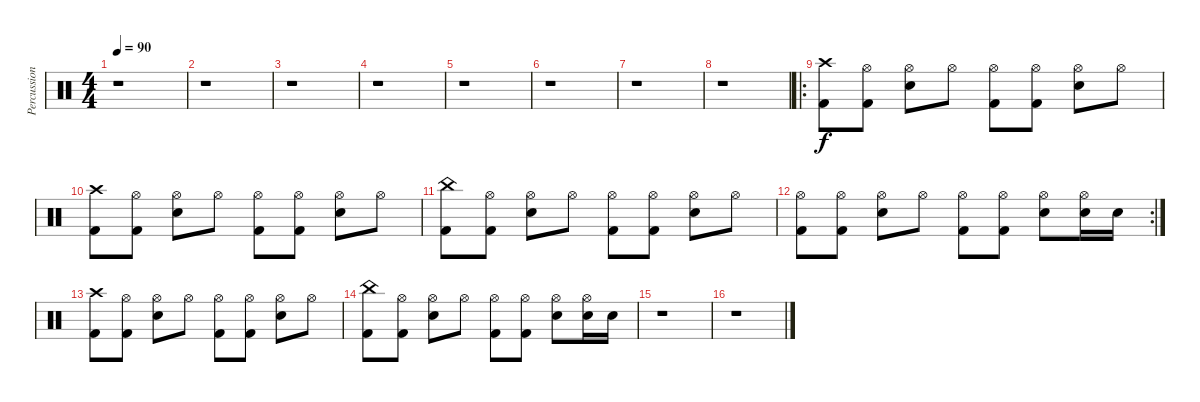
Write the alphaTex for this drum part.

\track ("Percussion" "Percussion") {instrument percussion}
\staff {score}
\articulation defaults
\ts (4 4)
\tempo 90
\clef neutral
\ks c
r.1{dy f} |
r.1 |
r.1 |
r.1 |
r.1 |
r.1 |
r.1 |
r.1 |
\ro
("Kick (hit) 2" "Crash high (hit)").8 ("Kick (hit) 2" "Hi-Hat (open)").8 ("Electric Snare (hit)" "Hi-Hat (open)").8 "Hi-Hat (open)".8 ("Kick (hit) 2" "Hi-Hat (open)").8 ("Kick (hit) 2" "Hi-Hat (open)").8 ("Electric Snare (hit)" "Hi-Hat (open)").8 "Hi-Hat (open)".8 |
("Crash high (hit)" "Kick (hit) 2").8 ("Hi-Hat (open)" "Kick (hit) 2").8 ("Hi-Hat (open)" "Electric Snare (hit)").8 "Hi-Hat (open)".8 ("Kick (hit) 2" "Hi-Hat (open)").8 ("Hi-Hat (open)" "Kick (hit) 2").8 ("Hi-Hat (open)" "Electric Snare (hit)").8 "Hi-Hat (open)".8 |
("Kick (hit) 2" "China (hit)").8 ("Kick (hit) 2" "Hi-Hat (open)").8 ("Hi-Hat (open)" "Electric Snare (hit)").8 "Hi-Hat (open)".8 ("Hi-Hat (open)" "Kick (hit) 2").8 ("Hi-Hat (open)" "Kick (hit) 2").8 ("Hi-Hat (open)" "Electric Snare (hit)").8 "Hi-Hat (open)".8 |
\rc 2
("Kick (hit) 2" "Hi-Hat (open)").8 ("Kick (hit) 2" "Hi-Hat (open)").8 ("Hi-Hat (open)" "Electric Snare (hit)").8 "Hi-Hat (open)".8 ("Hi-Hat (open)" "Kick (hit) 2").8 ("Hi-Hat (open)" "Kick (hit) 2").8 ("Electric Snare (hit)" "Hi-Hat (open)").8 ("Hi-Hat (open)" "Electric Snare (hit)").16 "Electric Snare (hit)".16 |
("Crash high (hit)" "Kick (hit) 2").8 ("Hi-Hat (open)" "Kick (hit) 2").8 ("Hi-Hat (open)" "Electric Snare (hit)").8 "Hi-Hat (open)".8 ("Kick (hit) 2" "Hi-Hat (open)").8 ("Kick (hit) 2" "Hi-Hat (open)").8 ("Electric Snare (hit)" "Hi-Hat (open)").8 "Hi-Hat (open)".8 |
("Kick (hit) 2" "China (hit)").8 ("Kick (hit) 2" "Hi-Hat (open)").8 ("Electric Snare (hit)" "Hi-Hat (open)").8 "Hi-Hat (open)".8 ("Kick (hit) 2" "Hi-Hat (open)").8 ("Hi-Hat (open)" "Kick (hit) 2").8 ("Electric Snare (hit)" "Hi-Hat (open)").8 ("Electric Snare (hit)" "Hi-Hat (open)").16 "Electric Snare (hit)".16 |
r.1 |
r.1
